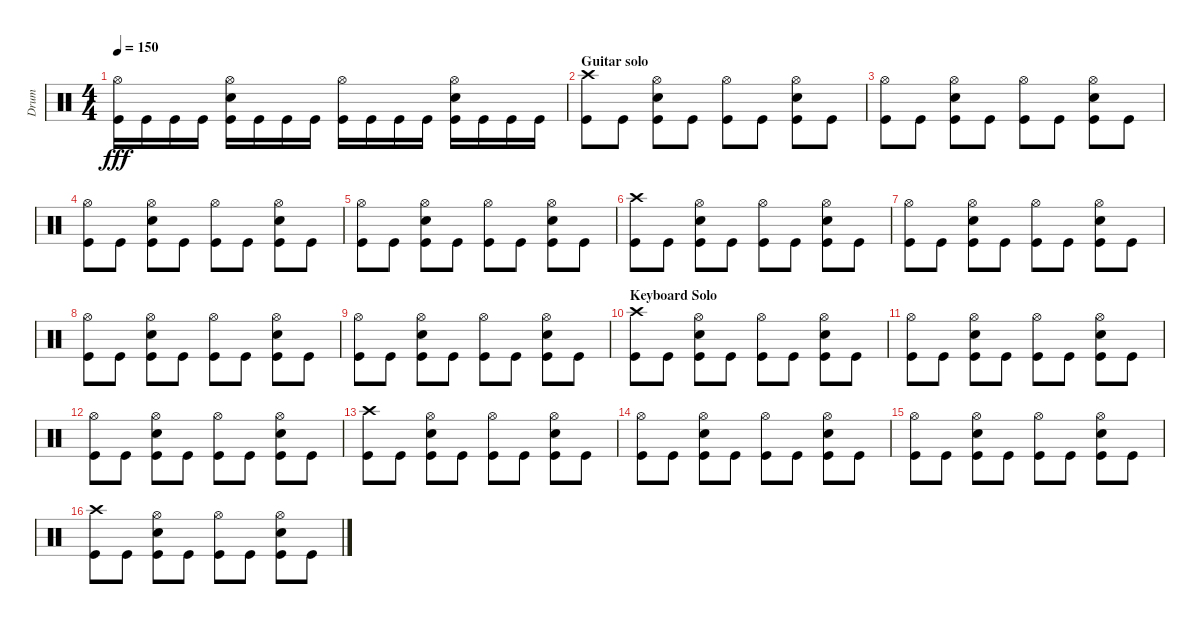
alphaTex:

\track ("Drum" "Drum") {instrument percussion}
\staff {score}
\articulation defaults
\ts (4 4)
\tempo 150
\clef neutral
\ks c
("Hi-Hat (open)" "Kick (hit)").16{dy fff} "Kick (hit)".16 "Kick (hit)".16 "Kick (hit)".16 ("Hi-Hat (open)" "Snare (hit) 2" "Kick (hit)").16 "Kick (hit)".16 "Kick (hit)".16 "Kick (hit)".16 ("Hi-Hat (open)" "Kick (hit)").16 "Kick (hit)".16 "Kick (hit)".16 "Kick (hit)".16 ("Hi-Hat (open)" "Snare (hit) 2" "Kick (hit)").16 "Kick (hit)".16 "Kick (hit)".16 "Kick (hit)".16 |
\section ("" "Guitar solo")
("Crash high (hit)" "Kick (hit)").8 "Kick (hit)".8 ("Hi-Hat (open)" "Snare (hit) 2" "Kick (hit)").8 "Kick (hit)".8 ("Hi-Hat (open)" "Kick (hit)").8 "Kick (hit)".8 ("Hi-Hat (open)" "Snare (hit) 2" "Kick (hit)").8 "Kick (hit)".8 |
("Hi-Hat (open)" "Kick (hit)").8 "Kick (hit)".8 ("Hi-Hat (open)" "Snare (hit) 2" "Kick (hit)").8 "Kick (hit)".8 ("Hi-Hat (open)" "Kick (hit)").8 "Kick (hit)".8 ("Hi-Hat (open)" "Snare (hit) 2" "Kick (hit)").8 "Kick (hit)".8 |
("Hi-Hat (open)" "Kick (hit)").8 "Kick (hit)".8 ("Hi-Hat (open)" "Snare (hit) 2" "Kick (hit)").8 "Kick (hit)".8 ("Hi-Hat (open)" "Kick (hit)").8 "Kick (hit)".8 ("Hi-Hat (open)" "Snare (hit) 2" "Kick (hit)").8 "Kick (hit)".8 |
("Hi-Hat (open)" "Kick (hit)").8 "Kick (hit)".8 ("Hi-Hat (open)" "Snare (hit) 2" "Kick (hit)").8 "Kick (hit)".8 ("Hi-Hat (open)" "Kick (hit)").8 "Kick (hit)".8 ("Hi-Hat (open)" "Snare (hit) 2" "Kick (hit)").8 "Kick (hit)".8 |
("Crash high (hit)" "Kick (hit)").8 "Kick (hit)".8 ("Hi-Hat (open)" "Snare (hit) 2" "Kick (hit)").8 "Kick (hit)".8 ("Hi-Hat (open)" "Kick (hit)").8 "Kick (hit)".8 ("Hi-Hat (open)" "Snare (hit) 2" "Kick (hit)").8 "Kick (hit)".8 |
("Hi-Hat (open)" "Kick (hit)").8 "Kick (hit)".8 ("Hi-Hat (open)" "Snare (hit) 2" "Kick (hit)").8 "Kick (hit)".8 ("Hi-Hat (open)" "Kick (hit)").8 "Kick (hit)".8 ("Hi-Hat (open)" "Snare (hit) 2" "Kick (hit)").8 "Kick (hit)".8 |
("Hi-Hat (open)" "Kick (hit)").8 "Kick (hit)".8 ("Hi-Hat (open)" "Snare (hit) 2" "Kick (hit)").8 "Kick (hit)".8 ("Hi-Hat (open)" "Kick (hit)").8 "Kick (hit)".8 ("Hi-Hat (open)" "Snare (hit) 2" "Kick (hit)").8 "Kick (hit)".8 |
("Hi-Hat (open)" "Kick (hit)").8 "Kick (hit)".8 ("Hi-Hat (open)" "Snare (hit) 2" "Kick (hit)").8 "Kick (hit)".8 ("Hi-Hat (open)" "Kick (hit)").8 "Kick (hit)".8 ("Hi-Hat (open)" "Snare (hit) 2" "Kick (hit)").8 "Kick (hit)".8 |
\section ("" "Keyboard Solo")
("Crash high (hit)" "Kick (hit)").8 "Kick (hit)".8 ("Hi-Hat (open)" "Snare (hit) 2" "Kick (hit)").8 "Kick (hit)".8 ("Hi-Hat (open)" "Kick (hit)").8 "Kick (hit)".8 ("Hi-Hat (open)" "Snare (hit) 2" "Kick (hit)").8 "Kick (hit)".8 |
("Hi-Hat (open)" "Kick (hit)").8 "Kick (hit)".8 ("Hi-Hat (open)" "Snare (hit) 2" "Kick (hit)").8 "Kick (hit)".8 ("Hi-Hat (open)" "Kick (hit)").8 "Kick (hit)".8 ("Hi-Hat (open)" "Snare (hit) 2" "Kick (hit)").8 "Kick (hit)".8 |
("Hi-Hat (open)" "Kick (hit)").8 "Kick (hit)".8 ("Hi-Hat (open)" "Snare (hit) 2" "Kick (hit)").8 "Kick (hit)".8 ("Hi-Hat (open)" "Kick (hit)").8 "Kick (hit)".8 ("Hi-Hat (open)" "Snare (hit) 2" "Kick (hit)").8 "Kick (hit)".8 |
("Crash high (hit)" "Kick (hit)").8 "Kick (hit)".8 ("Hi-Hat (open)" "Snare (hit) 2" "Kick (hit)").8 "Kick (hit)".8 ("Hi-Hat (open)" "Kick (hit)").8 "Kick (hit)".8 ("Hi-Hat (open)" "Snare (hit) 2" "Kick (hit)").8 "Kick (hit)".8 |
("Hi-Hat (open)" "Kick (hit)").8 "Kick (hit)".8 ("Hi-Hat (open)" "Snare (hit) 2" "Kick (hit)").8 "Kick (hit)".8 ("Hi-Hat (open)" "Kick (hit)").8 "Kick (hit)".8 ("Hi-Hat (open)" "Snare (hit) 2" "Kick (hit)").8 "Kick (hit)".8 |
("Hi-Hat (open)" "Kick (hit)").8 "Kick (hit)".8 ("Hi-Hat (open)" "Snare (hit) 2" "Kick (hit)").8 "Kick (hit)".8 ("Hi-Hat (open)" "Kick (hit)").8 "Kick (hit)".8 ("Hi-Hat (open)" "Snare (hit) 2" "Kick (hit)").8 "Kick (hit)".8 |
("Crash high (hit)" "Kick (hit)").8 "Kick (hit)".8 ("Hi-Hat (open)" "Snare (hit) 2" "Kick (hit)").8 "Kick (hit)".8 ("Hi-Hat (open)" "Kick (hit)").8 "Kick (hit)".8 ("Hi-Hat (open)" "Snare (hit) 2" "Kick (hit)").8 "Kick (hit)".8
